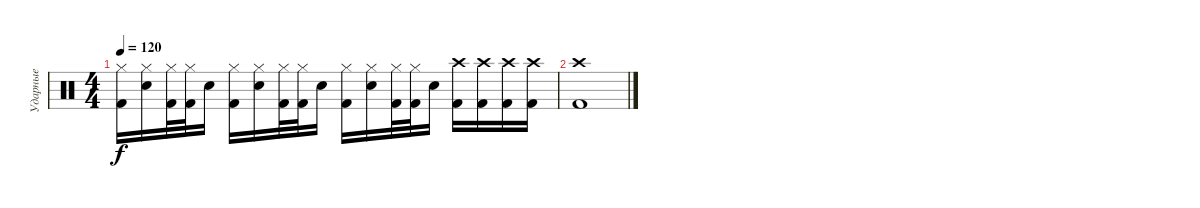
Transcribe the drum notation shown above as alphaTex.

\track ("Ударные" "Ударные") {instrument percussion}
\staff {score}
\articulation defaults
\ts (4 4)
\tempo 120
\clef neutral
\ks c
("Hi-Hat (closed)" "Kick (hit) 2").16{dy f} ("Hi-Hat (closed)" "Electric Snare (hit)").16 ("Hi-Hat (closed)" "Kick (hit) 2").32 ("Hi-Hat (closed)" "Kick (hit) 2").32 "Electric Snare (hit)".16 ("Hi-Hat (closed)" "Kick (hit) 2").16 ("Hi-Hat (closed)" "Electric Snare (hit)").16 ("Hi-Hat (closed)" "Kick (hit) 2").32 ("Hi-Hat (closed)" "Kick (hit) 2").32 "Electric Snare (hit)".16 ("Hi-Hat (closed)" "Kick (hit) 2").16 ("Hi-Hat (closed)" "Electric Snare (hit)").16 ("Hi-Hat (closed)" "Kick (hit) 2").32 ("Hi-Hat (closed)" "Kick (hit) 2").32 "Electric Snare (hit)".16 ("Crash high (hit)" "Kick (hit) 2").16 ("Crash high (hit)" "Kick (hit) 2").16 ("Crash high (hit)" "Kick (hit) 2").16 ("Crash high (hit)" "Kick (hit) 2").16 |
("Crash high (hit)" "Kick (hit) 2").1
